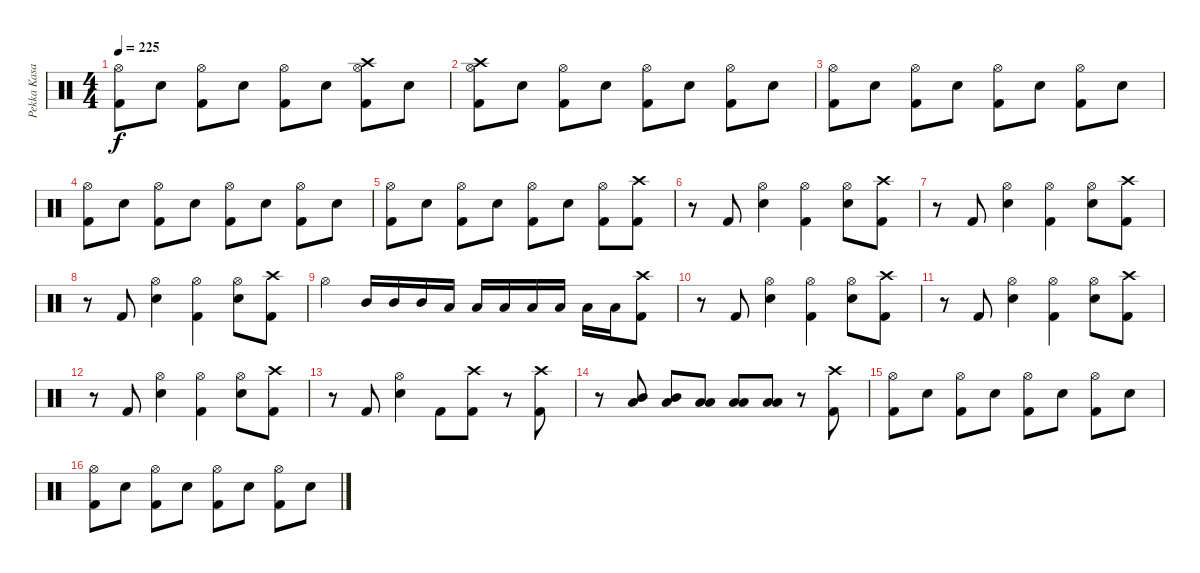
\track ("Pekka Kasari" "Pekka Kasa") {instrument percussion}
\staff {score}
\articulation defaults
\ts (4 4)
\tempo 225
\clef neutral
\ks c
("Hi-Hat (open)" "Kick (hit) 2").8{dy f} "Snare (hit) 2".8 ("Hi-Hat (open)" "Kick (hit) 2").8 "Snare (hit) 2".8 ("Hi-Hat (open)" "Kick (hit) 2").8 "Snare (hit) 2".8 ("Hi-Hat (open)" "Kick (hit) 2" "Crash high (hit)").8 "Snare (hit) 2".8 |
("Crash high (hit)" "Hi-Hat (open)" "Kick (hit) 2").8 "Snare (hit) 2".8 ("Hi-Hat (open)" "Kick (hit) 2").8 "Snare (hit) 2".8 ("Hi-Hat (open)" "Kick (hit) 2").8 "Snare (hit) 2".8 ("Hi-Hat (open)" "Kick (hit) 2").8 "Snare (hit) 2".8 |
("Hi-Hat (open)" "Kick (hit) 2").8 "Snare (hit) 2".8 ("Hi-Hat (open)" "Kick (hit) 2").8 "Snare (hit) 2".8 ("Hi-Hat (open)" "Kick (hit) 2").8 "Snare (hit) 2".8 ("Hi-Hat (open)" "Kick (hit) 2").8 "Snare (hit) 2".8 |
("Hi-Hat (open)" "Kick (hit) 2").8 "Snare (hit) 2".8 ("Hi-Hat (open)" "Kick (hit) 2").8 "Snare (hit) 2".8 ("Hi-Hat (open)" "Kick (hit) 2").8 "Snare (hit) 2".8 ("Hi-Hat (open)" "Kick (hit) 2").8 "Snare (hit) 2".8 |
("Hi-Hat (open)" "Kick (hit) 2").8 "Snare (hit) 2".8 ("Hi-Hat (open)" "Kick (hit) 2").8 "Snare (hit) 2".8 ("Hi-Hat (open)" "Kick (hit) 2").8 "Snare (hit) 2".8 ("Hi-Hat (open)" "Kick (hit) 2").8 ("Crash high (hit)" "Kick (hit) 2").8 |
r.8 "Kick (hit) 2".8 ("Hi-Hat (open)" "Snare (hit) 2").4 ("Hi-Hat (open)" "Kick (hit) 2").4 ("Hi-Hat (open)" "Snare (hit) 2").8 ("Kick (hit) 2" "Crash high (hit)").8 |
r.8 "Kick (hit) 2".8 ("Hi-Hat (open)" "Snare (hit) 2").4 ("Hi-Hat (open)" "Kick (hit) 2").4 ("Hi-Hat (open)" "Snare (hit) 2").8 ("Kick (hit) 2" "Crash high (hit)").8 |
r.8 "Kick (hit) 2".8 ("Hi-Hat (open)" "Snare (hit) 2").4 ("Hi-Hat (open)" "Kick (hit) 2").4 ("Hi-Hat (open)" "Snare (hit) 2").8 ("Kick (hit) 2" "Crash high (hit)").8 |
"Hi-Hat (open)".4 "Mid Tom (hit)".16 "Mid Tom (hit)".16 "Mid Tom (hit)".16 "Low Tom (hit)".16 "Low Tom (hit)".16 "Low Tom (hit)".16 "Low Tom (hit)".16 "Low Floor Tom (hit)".16 "Low Floor Tom (hit)".16 "Low Floor Tom (hit)".16 ("Crash high (hit)" "Kick (hit) 2").8 |
r.8 "Kick (hit) 2".8 ("Hi-Hat (open)" "Snare (hit) 2").4 ("Hi-Hat (open)" "Kick (hit) 2").4 ("Hi-Hat (open)" "Snare (hit) 2").8 ("Kick (hit) 2" "Crash high (hit)").8 |
r.8 "Kick (hit) 2".8 ("Hi-Hat (open)" "Snare (hit) 2").4 ("Hi-Hat (open)" "Kick (hit) 2").4 ("Hi-Hat (open)" "Snare (hit) 2").8 ("Kick (hit) 2" "Crash high (hit)").8 |
r.8 "Kick (hit) 2".8 ("Hi-Hat (open)" "Snare (hit) 2").4 ("Hi-Hat (open)" "Kick (hit) 2").4 ("Hi-Hat (open)" "Snare (hit) 2").8 ("Kick (hit) 2" "Crash high (hit)").8 |
r.8 "Kick (hit) 2".8 ("Hi-Hat (open)" "Snare (hit) 2").4 "Kick (hit) 2".8 ("Crash high (hit)" "Kick (hit) 2").8 r.8 ("Crash high (hit)" "Kick (hit) 2").8 |
r.8 ("Mid Tom (hit)" "Low Tom (hit)").8 ("Mid Tom (hit)" "Low Tom (hit)").8 ("Low Tom (hit)" "Low Floor Tom (hit)").8 ("Low Tom (hit)" "Low Floor Tom (hit)").8 ("Low Floor Tom (hit)" "Low Tom (hit)").8 r.8 ("Crash high (hit)" "Kick (hit) 2").8 |
("Hi-Hat (open)" "Kick (hit) 2").8 "Snare (hit) 2".8 ("Hi-Hat (open)" "Kick (hit) 2").8 "Snare (hit) 2".8 ("Hi-Hat (open)" "Kick (hit) 2").8 "Snare (hit) 2".8 ("Hi-Hat (open)" "Kick (hit) 2").8 "Snare (hit) 2".8 |
("Hi-Hat (open)" "Kick (hit) 2").8 "Snare (hit) 2".8 ("Hi-Hat (open)" "Kick (hit) 2").8 "Snare (hit) 2".8 ("Hi-Hat (open)" "Kick (hit) 2").8 "Snare (hit) 2".8 ("Hi-Hat (open)" "Kick (hit) 2").8 "Snare (hit) 2".8
